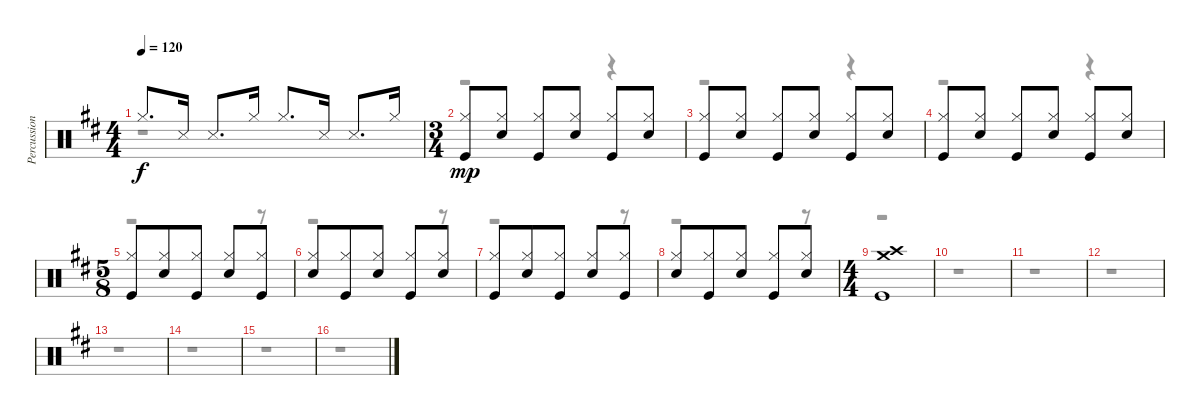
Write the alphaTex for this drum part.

\track ("Percussion" "Percussion") {instrument percussion}
\staff {score}
\articulation defaults
\voice
\ts (4 4)
\tempo 120
\clef neutral
\ks bminor "Hi-Hat (closed)".8{d dy f} "Snare (side stick) 3".16 "Snare (side stick) 3".8{d} "Hi-Hat (closed)".16 "Hi-Hat (closed)".8{d} "Snare (side stick) 3".16 "Snare (side stick) 3".8{d} "Hi-Hat (closed)".16
|
\ts (3 4)
("Hi-Hat (closed)" "Kick (hit)").8{dy mp} ("Hi-Hat (closed)" "Snare (hit) 2").8 ("Hi-Hat (closed)" "Kick (hit)").8 ("Hi-Hat (closed)" "Snare (hit) 2").8 ("Hi-Hat (closed)" "Kick (hit)").8 ("Hi-Hat (closed)" "Snare (hit) 2").8 |
("Hi-Hat (closed)" "Kick (hit)").8 ("Hi-Hat (closed)" "Snare (hit) 2").8 ("Hi-Hat (closed)" "Kick (hit)").8 ("Hi-Hat (closed)" "Snare (hit) 2").8 ("Hi-Hat (closed)" "Kick (hit)").8 ("Hi-Hat (closed)" "Snare (hit) 2").8 |
("Hi-Hat (closed)" "Kick (hit)").8 ("Hi-Hat (closed)" "Snare (hit) 2").8 ("Hi-Hat (closed)" "Kick (hit)").8 ("Hi-Hat (closed)" "Snare (hit) 2").8 ("Hi-Hat (closed)" "Kick (hit)").8 ("Hi-Hat (closed)" "Snare (hit) 2").8 |
\ts (5 8)
("Hi-Hat (closed)" "Kick (hit)").8 ("Hi-Hat (closed)" "Snare (hit) 2").8 ("Hi-Hat (closed)" "Kick (hit)").8 ("Hi-Hat (closed)" "Snare (hit) 2").8 ("Hi-Hat (closed)" "Kick (hit)").8 |
("Hi-Hat (closed)" "Snare (hit) 2").8 ("Hi-Hat (closed)" "Kick (hit)").8 ("Hi-Hat (closed)" "Snare (hit) 2").8 ("Hi-Hat (closed)" "Kick (hit)").8 ("Hi-Hat (closed)" "Snare (hit) 2").8 |
("Hi-Hat (closed)" "Kick (hit)").8 ("Hi-Hat (closed)" "Snare (hit) 2").8 ("Hi-Hat (closed)" "Kick (hit)").8 ("Hi-Hat (closed)" "Snare (hit) 2").8 ("Hi-Hat (closed)" "Kick (hit)").8 |
("Hi-Hat (closed)" "Snare (hit) 2").8 ("Hi-Hat (closed)" "Kick (hit)").8 ("Hi-Hat (closed)" "Snare (hit) 2").8 ("Hi-Hat (closed)" "Kick (hit)").8 ("Hi-Hat (closed)" "Snare (hit) 2").8 |
\ts (4 4)
("Crash medium (hit)" "Crash high (hit)" "Kick (hit)").1 |
|
|
|
|
|
|
\voice
\clef neutral
\ottava regular
\simile none
\ks bminor
r.1{dy f} |
r.2 r.4 |
r.2 r.4 |
r.2 r.4 |
r.2 r.8 |
r.2 r.8 |
r.2 r.8 |
r.2 r.8 |
r.1 |
r.1 |
r.1 |
r.1 |
r.1 |
r.1 |
r.1 |
r.1
